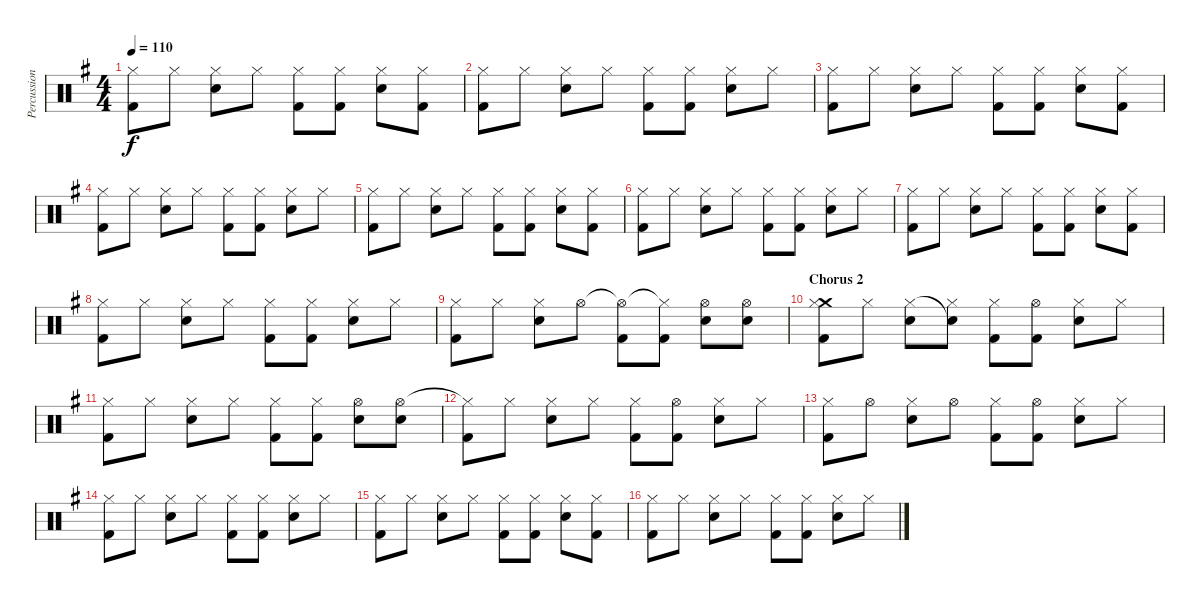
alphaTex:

\track ("Percussion" "Percussion") {instrument percussion}
\staff {score}
\articulation defaults
\ts (4 4)
\tempo 110
\clef neutral
\ks g
("Hi-Hat (closed)" "Kick (hit) 2").8{dy f} "Hi-Hat (closed)".8 ("Hi-Hat (closed)" "Electric Snare (hit)").8 "Hi-Hat (closed)".8 ("Hi-Hat (closed)" "Kick (hit) 2").8 ("Hi-Hat (closed)" "Kick (hit) 2").8 ("Hi-Hat (closed)" "Electric Snare (hit)").8 ("Hi-Hat (closed)" "Kick (hit) 2").8 |
("Hi-Hat (closed)" "Kick (hit) 2").8 "Hi-Hat (closed)".8 ("Hi-Hat (closed)" "Electric Snare (hit)").8 "Hi-Hat (closed)".8 ("Hi-Hat (closed)" "Kick (hit) 2").8 ("Hi-Hat (closed)" "Kick (hit) 2").8 ("Hi-Hat (closed)" "Electric Snare (hit)").8 "Hi-Hat (closed)".8 |
("Hi-Hat (closed)" "Kick (hit) 2").8 "Hi-Hat (closed)".8 ("Hi-Hat (closed)" "Electric Snare (hit)").8 "Hi-Hat (closed)".8 ("Hi-Hat (closed)" "Kick (hit) 2").8 ("Hi-Hat (closed)" "Kick (hit) 2").8 ("Hi-Hat (closed)" "Electric Snare (hit)").8 ("Hi-Hat (closed)" "Kick (hit) 2").8 |
("Hi-Hat (closed)" "Kick (hit) 2").8 "Hi-Hat (closed)".8 ("Hi-Hat (closed)" "Electric Snare (hit)").8 "Hi-Hat (closed)".8 ("Hi-Hat (closed)" "Kick (hit) 2").8 ("Hi-Hat (closed)" "Kick (hit) 2").8 ("Hi-Hat (closed)" "Electric Snare (hit)").8 "Hi-Hat (closed)".8 |
("Hi-Hat (closed)" "Kick (hit) 2").8 "Hi-Hat (closed)".8 ("Hi-Hat (closed)" "Electric Snare (hit)").8 "Hi-Hat (closed)".8 ("Hi-Hat (closed)" "Kick (hit) 2").8 ("Hi-Hat (closed)" "Kick (hit) 2").8 ("Hi-Hat (closed)" "Electric Snare (hit)").8 ("Hi-Hat (closed)" "Kick (hit) 2").8 |
("Hi-Hat (closed)" "Kick (hit) 2").8 "Hi-Hat (closed)".8 ("Hi-Hat (closed)" "Electric Snare (hit)").8 "Hi-Hat (closed)".8 ("Hi-Hat (closed)" "Kick (hit) 2").8 ("Hi-Hat (closed)" "Kick (hit) 2").8 ("Hi-Hat (closed)" "Electric Snare (hit)").8 "Hi-Hat (closed)".8 |
("Hi-Hat (closed)" "Kick (hit) 2").8 "Hi-Hat (closed)".8 ("Hi-Hat (closed)" "Electric Snare (hit)").8 "Hi-Hat (closed)".8 ("Hi-Hat (closed)" "Kick (hit) 2").8 ("Hi-Hat (closed)" "Kick (hit) 2").8 ("Hi-Hat (closed)" "Electric Snare (hit)").8 ("Hi-Hat (closed)" "Kick (hit) 2").8 |
("Hi-Hat (closed)" "Kick (hit) 2").8 "Hi-Hat (closed)".8 ("Hi-Hat (closed)" "Electric Snare (hit)").8 "Hi-Hat (closed)".8 ("Hi-Hat (closed)" "Kick (hit) 2").8 ("Hi-Hat (closed)" "Kick (hit) 2").8 ("Hi-Hat (closed)" "Electric Snare (hit)").8 "Hi-Hat (closed)".8 |
("Hi-Hat (closed)" "Kick (hit) 2").8 "Hi-Hat (closed)".8 ("Hi-Hat (closed)" "Electric Snare (hit)").8 "Hi-Hat (open)".8 ("Hi-Hat (open)"{t} "Kick (hit) 2").8 ("Hi-Hat (closed)"{t} "Kick (hit) 2").8 ("Hi-Hat (open)" "Electric Snare (hit)").8 ("Hi-Hat (open)" "Electric Snare (hit)").8 |
\section ("" "Chorus 2")
("Crash medium (hit)" "Hi-Hat (closed)" "Kick (hit) 2").8 "Hi-Hat (closed)".8 ("Hi-Hat (closed)" "Electric Snare (hit)").8 ("Snare (hit)"{t} "Hi-Hat (closed)").8 ("Hi-Hat (closed)" "Kick (hit) 2").8 ("Hi-Hat (open)" "Kick (hit) 2").8 ("Hi-Hat (closed)" "Electric Snare (hit)").8 "Hi-Hat (closed)".8 |
("Hi-Hat (closed)" "Kick (hit) 2").8 "Hi-Hat (closed)".8 ("Hi-Hat (closed)" "Electric Snare (hit)").8 "Hi-Hat (closed)".8 ("Hi-Hat (closed)" "Kick (hit) 2").8 ("Hi-Hat (closed)" "Kick (hit) 2").8 ("Hi-Hat (open)" "Electric Snare (hit)").8 ("Hi-Hat (open)" "Electric Snare (hit)").8 |
("Hi-Hat (closed)"{t} "Kick (hit) 2").8 "Hi-Hat (closed)".8 ("Hi-Hat (closed)" "Electric Snare (hit)").8 "Hi-Hat (closed)".8 ("Hi-Hat (closed)" "Kick (hit) 2").8 ("Hi-Hat (open)" "Kick (hit) 2").8 ("Hi-Hat (closed)" "Electric Snare (hit)").8 "Hi-Hat (closed)".8 |
("Hi-Hat (closed)" "Kick (hit) 2").8 "Hi-Hat (open)".8 ("Hi-Hat (closed)" "Electric Snare (hit)").8 "Hi-Hat (open)".8 ("Hi-Hat (closed)" "Kick (hit) 2").8 ("Hi-Hat (open)" "Kick (hit) 2").8 ("Hi-Hat (closed)" "Electric Snare (hit)").8 "Hi-Hat (closed)".8 |
("Hi-Hat (closed)" "Kick (hit) 2").8 "Hi-Hat (closed)".8 ("Hi-Hat (closed)" "Electric Snare (hit)").8 "Hi-Hat (closed)".8 ("Hi-Hat (closed)" "Kick (hit) 2").8 ("Hi-Hat (closed)" "Kick (hit) 2").8 ("Hi-Hat (closed)" "Electric Snare (hit)").8 "Hi-Hat (closed)".8 |
("Hi-Hat (closed)" "Kick (hit) 2").8 "Hi-Hat (closed)".8 ("Hi-Hat (closed)" "Electric Snare (hit)").8 "Hi-Hat (closed)".8 ("Hi-Hat (closed)" "Kick (hit) 2").8 ("Hi-Hat (closed)" "Kick (hit) 2").8 ("Hi-Hat (closed)" "Electric Snare (hit)").8 ("Hi-Hat (closed)" "Kick (hit) 2").8 |
("Hi-Hat (closed)" "Kick (hit) 2").8 "Hi-Hat (closed)".8 ("Hi-Hat (closed)" "Electric Snare (hit)").8 "Hi-Hat (closed)".8 ("Hi-Hat (closed)" "Kick (hit) 2").8 ("Hi-Hat (closed)" "Kick (hit) 2").8 ("Hi-Hat (closed)" "Electric Snare (hit)").8 "Hi-Hat (closed)".8
